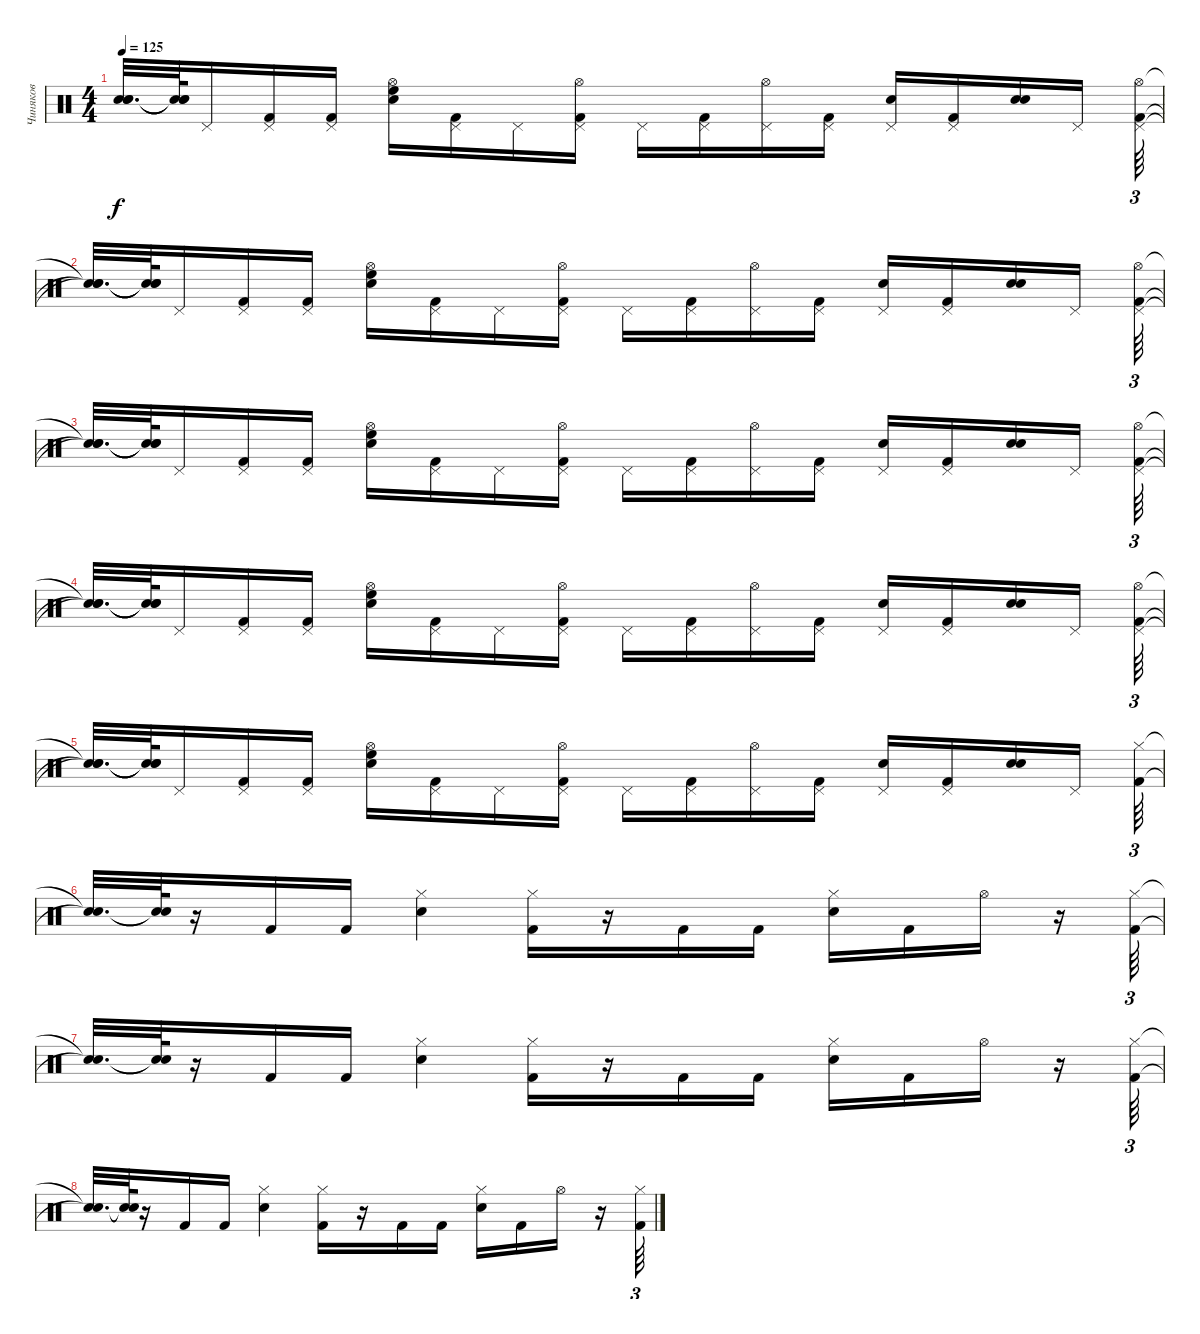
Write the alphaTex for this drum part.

\track ("Чиняков" "Чиняков") {instrument percussion}
\staff {score}
\articulation defaults
\ts (4 4)
\tempo 125
\clef neutral
\ks c
("Snare (hit)"{t} "Snare (hit)"{t} "Snare (hit)"{t}).32{d dy f} ("Snare (hit)"{t} "Snare (hit)"{t} "Snare (hit)"{t}).64 "Pedal Hi-Hat (hit)".16 ("Pedal Hi-Hat (hit)" "Kick (hit) 2").16 ("Pedal Hi-Hat (hit)" "Kick (hit) 2").16 ("Electric Snare (hit)" "High Floor Tom (hit)" "Hi-Hat (open)").16 ("Pedal Hi-Hat (hit)" "Kick (hit) 2").16 "Pedal Hi-Hat (hit)".16 ("Pedal Hi-Hat (hit)" "Kick (hit) 2" "Hi-Hat (open)").16 "Pedal Hi-Hat (hit)".16 ("Pedal Hi-Hat (hit)" "Kick (hit) 2").16 ("Pedal Hi-Hat (hit)" "Hi-Hat (open)").16 ("Pedal Hi-Hat (hit)" "Kick (hit) 2").16 ("Pedal Hi-Hat (hit)" "Electric Snare (hit)").16 ("Pedal Hi-Hat (hit)" "Kick (hit) 2").16 ("Electric Snare (hit)" "Electric Snare (hit)").16 "Pedal Hi-Hat (hit)".16 ("Pedal Hi-Hat (hit)" "Kick (hit) 2" "Hi-Hat (open)").64{tu (3 2)} |
("Snare (hit)"{t} "Snare (hit)"{t} "Snare (hit)"{t}).32{d} ("Snare (hit)"{t} "Snare (hit)"{t} "Snare (hit)"{t}).64 "Pedal Hi-Hat (hit)".16 ("Pedal Hi-Hat (hit)" "Kick (hit) 2").16 ("Pedal Hi-Hat (hit)" "Kick (hit) 2").16 ("Electric Snare (hit)" "High Floor Tom (hit)" "Hi-Hat (open)").16 ("Pedal Hi-Hat (hit)" "Kick (hit) 2").16 "Pedal Hi-Hat (hit)".16 ("Pedal Hi-Hat (hit)" "Kick (hit) 2" "Hi-Hat (open)").16 "Pedal Hi-Hat (hit)".16 ("Pedal Hi-Hat (hit)" "Kick (hit) 2").16 ("Pedal Hi-Hat (hit)" "Hi-Hat (open)").16 ("Pedal Hi-Hat (hit)" "Kick (hit) 2").16 ("Pedal Hi-Hat (hit)" "Electric Snare (hit)").16 ("Pedal Hi-Hat (hit)" "Kick (hit) 2").16 ("Electric Snare (hit)" "Electric Snare (hit)").16 "Pedal Hi-Hat (hit)".16 ("Pedal Hi-Hat (hit)" "Kick (hit) 2" "Hi-Hat (open)").64{tu (3 2)} |
("Snare (hit)"{t} "Snare (hit)"{t} "Snare (hit)"{t}).32{d} ("Snare (hit)"{t} "Snare (hit)"{t} "Snare (hit)"{t}).64 "Pedal Hi-Hat (hit)".16 ("Pedal Hi-Hat (hit)" "Kick (hit) 2").16 ("Pedal Hi-Hat (hit)" "Kick (hit) 2").16 ("Electric Snare (hit)" "High Floor Tom (hit)" "Hi-Hat (open)").16 ("Pedal Hi-Hat (hit)" "Kick (hit) 2").16 "Pedal Hi-Hat (hit)".16 ("Pedal Hi-Hat (hit)" "Kick (hit) 2" "Hi-Hat (open)").16 "Pedal Hi-Hat (hit)".16 ("Pedal Hi-Hat (hit)" "Kick (hit) 2").16 ("Pedal Hi-Hat (hit)" "Hi-Hat (open)").16 ("Pedal Hi-Hat (hit)" "Kick (hit) 2").16 ("Pedal Hi-Hat (hit)" "Electric Snare (hit)").16 ("Pedal Hi-Hat (hit)" "Kick (hit) 2").16 ("Electric Snare (hit)" "Electric Snare (hit)").16 "Pedal Hi-Hat (hit)".16 ("Pedal Hi-Hat (hit)" "Kick (hit) 2" "Hi-Hat (open)").64{tu (3 2)} |
("Snare (hit)"{t} "Snare (hit)"{t} "Snare (hit)"{t}).32{d} ("Snare (hit)"{t} "Snare (hit)"{t} "Snare (hit)"{t}).64 "Pedal Hi-Hat (hit)".16 ("Pedal Hi-Hat (hit)" "Kick (hit) 2").16 ("Pedal Hi-Hat (hit)" "Kick (hit) 2").16 ("Electric Snare (hit)" "High Floor Tom (hit)" "Hi-Hat (open)").16 ("Pedal Hi-Hat (hit)" "Kick (hit) 2").16 "Pedal Hi-Hat (hit)".16 ("Pedal Hi-Hat (hit)" "Kick (hit) 2" "Hi-Hat (open)").16 "Pedal Hi-Hat (hit)".16 ("Pedal Hi-Hat (hit)" "Kick (hit) 2").16 ("Pedal Hi-Hat (hit)" "Hi-Hat (open)").16 ("Pedal Hi-Hat (hit)" "Kick (hit) 2").16 ("Pedal Hi-Hat (hit)" "Electric Snare (hit)").16 ("Pedal Hi-Hat (hit)" "Kick (hit) 2").16 ("Electric Snare (hit)" "Electric Snare (hit)").16 "Pedal Hi-Hat (hit)".16 ("Pedal Hi-Hat (hit)" "Kick (hit) 2" "Hi-Hat (open)").64{tu (3 2)} |
("Snare (hit)"{t} "Snare (hit)"{t} "Snare (hit)"{t}).32{d} ("Snare (hit)"{t} "Snare (hit)"{t} "Snare (hit)"{t}).64 "Pedal Hi-Hat (hit)".16 ("Pedal Hi-Hat (hit)" "Kick (hit) 2").16 ("Pedal Hi-Hat (hit)" "Kick (hit) 2").16 ("Electric Snare (hit)" "High Floor Tom (hit)" "Hi-Hat (open)").16 ("Pedal Hi-Hat (hit)" "Kick (hit) 2").16 "Pedal Hi-Hat (hit)".16 ("Pedal Hi-Hat (hit)" "Kick (hit) 2" "Hi-Hat (open)").16 "Pedal Hi-Hat (hit)".16 ("Pedal Hi-Hat (hit)" "Kick (hit) 2").16 ("Pedal Hi-Hat (hit)" "Hi-Hat (open)").16 ("Pedal Hi-Hat (hit)" "Kick (hit) 2").16 ("Pedal Hi-Hat (hit)" "Electric Snare (hit)").16 ("Pedal Hi-Hat (hit)" "Kick (hit) 2").16 ("Electric Snare (hit)" "Electric Snare (hit)").16 "Pedal Hi-Hat (hit)".16 ("Kick (hit) 2" "Hi-Hat (closed)").64{tu (3 2)} |
("Snare (hit)"{t} "Snare (hit)"{t}).32{d} ("Snare (hit)"{t} "Snare (hit)"{t}).64 r.16 "Kick (hit) 2".16 "Kick (hit) 2".16 ("Electric Snare (hit)" "Hi-Hat (closed)").4 ("Kick (hit) 2" "Hi-Hat (closed)").16 r.16 "Kick (hit) 2".16 "Kick (hit) 2".16 ("Electric Snare (hit)" "Hi-Hat (closed)").16 "Kick (hit) 2".16 "Hi-Hat (open)".16 r.16 ("Kick (hit) 2" "Hi-Hat (closed)").64{tu (3 2)} |
("Snare (hit)"{t} "Snare (hit)"{t}).32{d} ("Snare (hit)"{t} "Snare (hit)"{t}).64 r.16 "Kick (hit) 2".16 "Kick (hit) 2".16 ("Electric Snare (hit)" "Hi-Hat (closed)").4 ("Kick (hit) 2" "Hi-Hat (closed)").16 r.16 "Kick (hit) 2".16 "Kick (hit) 2".16 ("Electric Snare (hit)" "Hi-Hat (closed)").16 "Kick (hit) 2".16 "Hi-Hat (open)".16 r.16 ("Kick (hit) 2" "Hi-Hat (closed)").64{tu (3 2)} |
("Snare (hit)"{t} "Snare (hit)"{t}).32{d} ("Snare (hit)"{t} "Snare (hit)"{t}).64 r.16 "Kick (hit) 2".16 "Kick (hit) 2".16 ("Electric Snare (hit)" "Hi-Hat (closed)").4 ("Kick (hit) 2" "Hi-Hat (closed)").16 r.16 "Kick (hit) 2".16 "Kick (hit) 2".16 ("Electric Snare (hit)" "Hi-Hat (closed)").16 "Kick (hit) 2".16 "Hi-Hat (open)".16 r.16 ("Kick (hit) 2" "Hi-Hat (closed)").64{tu (3 2)}
